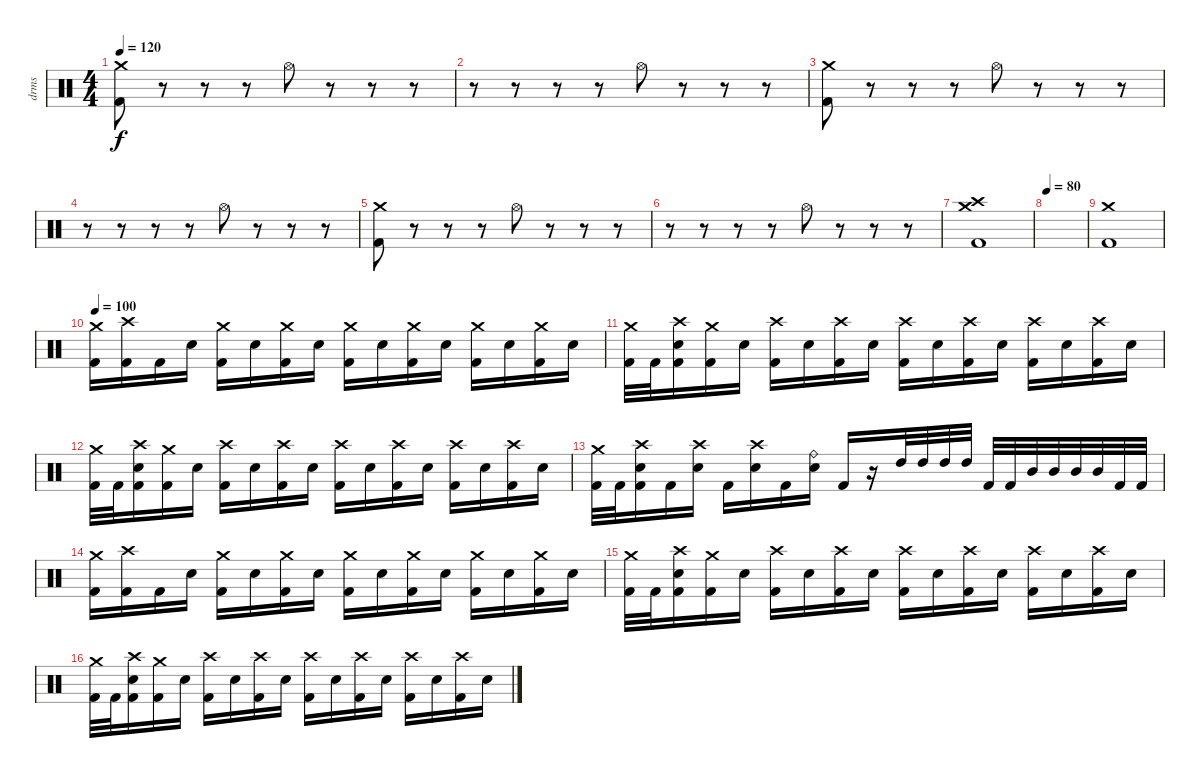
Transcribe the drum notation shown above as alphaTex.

\track ("drms" "drms") {instrument percussion}
\staff {score}
\articulation defaults
\ts (4 4)
\tempo 120
\clef neutral
\ks c
("Crash medium (hit)" "Kick (hit) 2").8{dy f} r.8 r.8 r.8 "Hi-Hat (open)".8 r.8 r.8 r.8 |
r.8 r.8 r.8 r.8 "Hi-Hat (open)".8 r.8 r.8 r.8 |
("Crash medium (hit)" "Kick (hit) 2").8 r.8 r.8 r.8 "Hi-Hat (open)".8 r.8 r.8 r.8 |
r.8 r.8 r.8 r.8 "Hi-Hat (open)".8 r.8 r.8 r.8 |
("Crash medium (hit)" "Kick (hit) 2").8 r.8 r.8 r.8 "Hi-Hat (open)".8 r.8 r.8 r.8 |
r.8 r.8 r.8 r.8 "Hi-Hat (open)".8 r.8 r.8 r.8 |
("Crash high (hit)" "Crash medium (hit)" "Kick (hit) 2").1 |
\tempo 80
|
("Crash medium (hit)" "Kick (hit) 2").1 |
\tempo 100
("Crash medium (hit)" "Kick (hit) 2").16 ("Crash high (hit)" "Kick (hit) 2").16 "Kick (hit) 2".16 "Electric Snare (hit)".16 ("Crash medium (hit)" "Kick (hit) 2").16 "Electric Snare (hit)".16 ("Crash medium (hit)" "Kick (hit) 2").16 "Electric Snare (hit)".16 ("Crash medium (hit)" "Kick (hit) 2").16 "Electric Snare (hit)".16 ("Crash medium (hit)" "Kick (hit) 2").16 "Electric Snare (hit)".16 ("Crash medium (hit)" "Kick (hit) 2").16 "Electric Snare (hit)".16 ("Crash medium (hit)" "Kick (hit) 2").16 "Electric Snare (hit)".16 |
("Crash medium (hit)" "Kick (hit) 2").32 "Kick (hit) 2".32 ("Crash high (hit)" "Electric Snare (hit)" "Kick (hit) 2").16 ("Crash medium (hit)" "Kick (hit) 2").16 "Electric Snare (hit)".16 ("Crash high (hit)" "Kick (hit) 2").16 "Electric Snare (hit)".16 ("Crash high (hit)" "Kick (hit) 2").16 "Electric Snare (hit)".16 ("Crash high (hit)" "Kick (hit) 2").16 "Electric Snare (hit)".16 ("Crash high (hit)" "Kick (hit) 2").16 "Electric Snare (hit)".16 ("Crash high (hit)" "Kick (hit) 2").16 "Electric Snare (hit)".16 ("Crash high (hit)" "Kick (hit) 2").16 "Electric Snare (hit)".16 |
("Crash medium (hit)" "Kick (hit) 2").32 "Kick (hit) 2".32 ("Crash high (hit)" "Electric Snare (hit)" "Kick (hit) 2").16 ("Crash medium (hit)" "Kick (hit) 2").16 "Electric Snare (hit)".16 ("Crash high (hit)" "Kick (hit) 2").16 "Electric Snare (hit)".16 ("Crash high (hit)" "Kick (hit) 2").16 "Electric Snare (hit)".16 ("Crash high (hit)" "Kick (hit) 2").16 "Electric Snare (hit)".16 ("Crash high (hit)" "Kick (hit) 2").16 "Electric Snare (hit)".16 ("Crash high (hit)" "Kick (hit) 2").16 "Electric Snare (hit)".16 ("Crash high (hit)" "Kick (hit) 2").16 "Electric Snare (hit)".16 |
("Crash medium (hit)" "Kick (hit) 2").32 "Kick (hit) 2".32 ("Crash high (hit)" "Electric Snare (hit)" "Kick (hit) 2").16 "Kick (hit) 2".16 ("Crash high (hit)" "Electric Snare (hit)").16 "Kick (hit) 2".16 ("Crash high (hit)" "Electric Snare (hit)").16 "Kick (hit) 2".16 ("Ride (bell)" "Electric Snare (hit)").16 "Kick (hit) 2".16 r.16 "High Tom (hit)".32 "High Tom (hit)".32 "High Tom (hit)".32 "High Tom (hit)".32 "Kick (hit) 2".32 "Kick (hit) 2".32 "Mid Tom (hit)".32 "Mid Tom (hit)".32 "Mid Tom (hit)".32 "Mid Tom (hit)".32 "Kick (hit) 2".32 "Kick (hit) 2".32 |
("Crash medium (hit)" "Kick (hit) 2").16 ("Crash high (hit)" "Kick (hit) 2").16 "Kick (hit) 2".16 "Electric Snare (hit)".16 ("Crash medium (hit)" "Kick (hit) 2").16 "Electric Snare (hit)".16 ("Crash medium (hit)" "Kick (hit) 2").16 "Electric Snare (hit)".16 ("Crash medium (hit)" "Kick (hit) 2").16 "Electric Snare (hit)".16 ("Crash medium (hit)" "Kick (hit) 2").16 "Electric Snare (hit)".16 ("Crash medium (hit)" "Kick (hit) 2").16 "Electric Snare (hit)".16 ("Crash medium (hit)" "Kick (hit) 2").16 "Electric Snare (hit)".16 |
("Crash medium (hit)" "Kick (hit) 2").32 "Kick (hit) 2".32 ("Crash high (hit)" "Electric Snare (hit)" "Kick (hit) 2").16 ("Crash medium (hit)" "Kick (hit) 2").16 "Electric Snare (hit)".16 ("Crash high (hit)" "Kick (hit) 2").16 "Electric Snare (hit)".16 ("Crash high (hit)" "Kick (hit) 2").16 "Electric Snare (hit)".16 ("Crash high (hit)" "Kick (hit) 2").16 "Electric Snare (hit)".16 ("Crash high (hit)" "Kick (hit) 2").16 "Electric Snare (hit)".16 ("Crash high (hit)" "Kick (hit) 2").16 "Electric Snare (hit)".16 ("Crash high (hit)" "Kick (hit) 2").16 "Electric Snare (hit)".16 |
("Crash medium (hit)" "Kick (hit) 2").32 "Kick (hit) 2".32 ("Crash high (hit)" "Electric Snare (hit)" "Kick (hit) 2").16 ("Crash medium (hit)" "Kick (hit) 2").16 "Electric Snare (hit)".16 ("Crash high (hit)" "Kick (hit) 2").16 "Electric Snare (hit)".16 ("Crash high (hit)" "Kick (hit) 2").16 "Electric Snare (hit)".16 ("Crash high (hit)" "Kick (hit) 2").16 "Electric Snare (hit)".16 ("Crash high (hit)" "Kick (hit) 2").16 "Electric Snare (hit)".16 ("Crash high (hit)" "Kick (hit) 2").16 "Electric Snare (hit)".16 ("Crash high (hit)" "Kick (hit) 2").16 "Electric Snare (hit)".16
